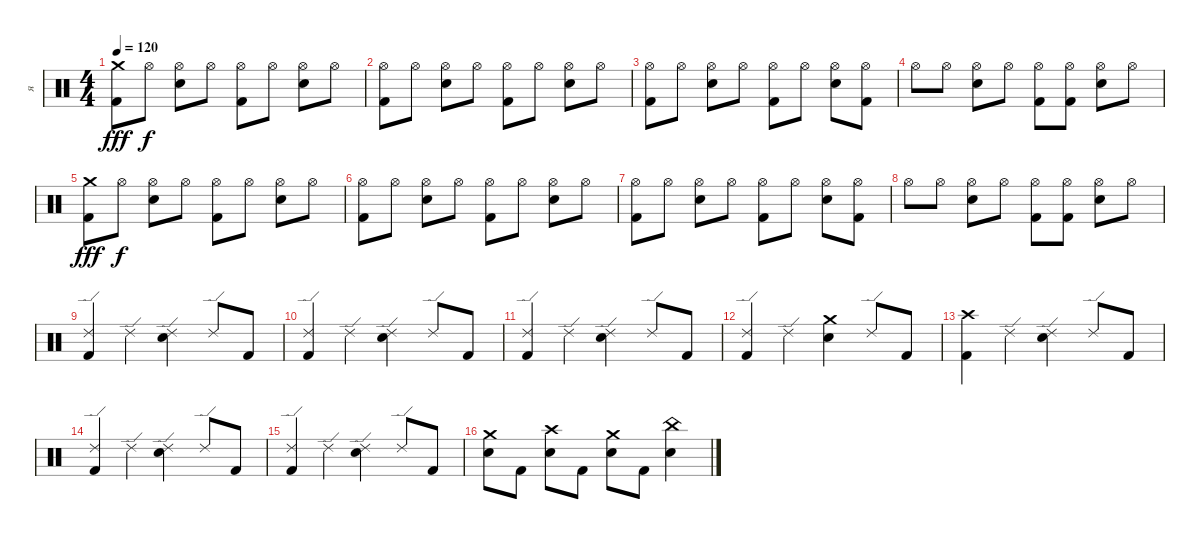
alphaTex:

\track ("я" "я") {instrument percussion}
\staff {score}
\articulation defaults
\ts (4 4)
\tempo 120
\clef neutral
\ks c
("Kick (hit) 2" "Crash medium (hit)").8{dy fff} "Hi-Hat (open)".8{dy f} ("Snare (hit) 2" "Hi-Hat (open)").8 "Hi-Hat (open)".8 ("Kick (hit) 2" "Hi-Hat (open)").8 "Hi-Hat (open)".8 ("Snare (hit) 2" "Hi-Hat (open)").8 "Hi-Hat (open)".8 |
("Kick (hit) 2" "Hi-Hat (open)").8 "Hi-Hat (open)".8 ("Snare (hit) 2" "Hi-Hat (open)").8 "Hi-Hat (open)".8 ("Kick (hit) 2" "Hi-Hat (open)").8 "Hi-Hat (open)".8 ("Snare (hit) 2" "Hi-Hat (open)").8 "Hi-Hat (open)".8 |
("Kick (hit) 2" "Hi-Hat (open)").8 "Hi-Hat (open)".8 ("Snare (hit) 2" "Hi-Hat (open)").8 "Hi-Hat (open)".8 ("Kick (hit) 2" "Hi-Hat (open)").8 "Hi-Hat (open)".8 ("Snare (hit) 2" "Hi-Hat (open)").8 ("Kick (hit) 2" "Hi-Hat (open)").8 |
"Hi-Hat (open)".8 "Hi-Hat (open)".8 ("Snare (hit) 2" "Hi-Hat (open)").8 "Hi-Hat (open)".8 ("Kick (hit) 2" "Hi-Hat (open)").8 ("Kick (hit) 2" "Hi-Hat (open)").8 ("Snare (hit) 2" "Hi-Hat (open)").8 "Hi-Hat (open)".8 |
("Kick (hit) 2" "Crash medium (hit)").8{dy fff} "Hi-Hat (open)".8{dy f} ("Snare (hit) 2" "Hi-Hat (open)").8 "Hi-Hat (open)".8 ("Kick (hit) 2" "Hi-Hat (open)").8 "Hi-Hat (open)".8 ("Snare (hit) 2" "Hi-Hat (open)").8 "Hi-Hat (open)".8 |
("Kick (hit) 2" "Hi-Hat (open)").8 "Hi-Hat (open)".8 ("Snare (hit) 2" "Hi-Hat (open)").8 "Hi-Hat (open)".8 ("Kick (hit) 2" "Hi-Hat (open)").8 "Hi-Hat (open)".8 ("Snare (hit) 2" "Hi-Hat (open)").8 "Hi-Hat (open)".8 |
("Kick (hit) 2" "Hi-Hat (open)").8 "Hi-Hat (open)".8 ("Snare (hit) 2" "Hi-Hat (open)").8 "Hi-Hat (open)".8 ("Kick (hit) 2" "Hi-Hat (open)").8 "Hi-Hat (open)".8 ("Snare (hit) 2" "Hi-Hat (open)").8 ("Kick (hit) 2" "Hi-Hat (open)").8 |
"Hi-Hat (open)".8 "Hi-Hat (open)".8 ("Snare (hit) 2" "Hi-Hat (open)").8 "Hi-Hat (open)".8 ("Kick (hit) 2" "Hi-Hat (open)").8 ("Kick (hit) 2" "Hi-Hat (open)").8 ("Snare (hit) 2" "Hi-Hat (open)").8 "Hi-Hat (open)".8 |
("Ride (edge) 2" "Kick (hit) 2").4 "Ride (edge) 2".4 ("Ride (edge) 2" "Snare (hit) 2").4 "Ride (edge) 2".8 "Kick (hit) 2".8 |
("Ride (edge) 2" "Kick (hit) 2").4 "Ride (edge) 2".4 ("Ride (edge) 2" "Snare (hit) 2").4 "Ride (edge) 2".8 "Kick (hit) 2".8 |
("Ride (edge) 2" "Kick (hit) 2").4 "Ride (edge) 2".4 ("Ride (edge) 2" "Snare (hit) 2").4 "Ride (edge) 2".8 "Kick (hit) 2".8 |
("Ride (edge) 2" "Kick (hit) 2").4 "Ride (edge) 2".4 ("Crash medium (hit)" "Snare (hit) 2").4 "Ride (edge) 2".8 "Kick (hit) 2".8 |
("Crash high (hit)" "Kick (hit) 2").4 "Ride (edge) 2".4 ("Ride (edge) 2" "Snare (hit) 2").4 "Ride (edge) 2".8 "Kick (hit) 2".8 |
("Ride (edge) 2" "Kick (hit) 2").4 "Ride (edge) 2".4 ("Ride (edge) 2" "Snare (hit) 2").4 "Ride (edge) 2".8 "Kick (hit) 2".8 |
("Ride (edge) 2" "Kick (hit) 2").4 "Ride (edge) 2".4 ("Ride (edge) 2" "Snare (hit) 2").4 "Ride (edge) 2".8 "Kick (hit) 2".8 |
("Crash medium (hit)" "Snare (hit) 2").8 "Kick (hit) 2".8 ("Crash high (hit)" "Snare (hit) 2").8 "Kick (hit) 2".8 ("Crash medium (hit)" "Snare (hit) 2").8 "Kick (hit) 2".8 ("China (hit)" "Snare (hit) 2").4
